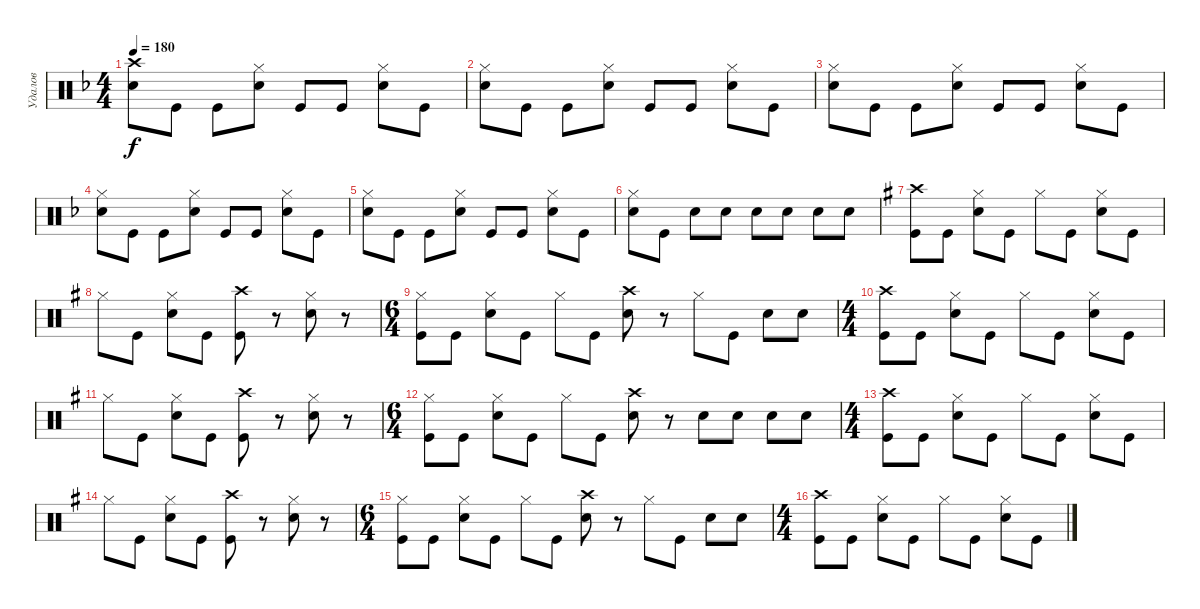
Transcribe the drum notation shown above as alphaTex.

\track ("Удалов" "Удалов") {instrument percussion}
\staff {score}
\articulation defaults
\ts (4 4)
\tempo 180
\clef neutral
\ks f
("Crash high (hit)" "Electric Snare (hit)").8{dy f} "Kick (hit)".8 "Kick (hit)".8 ("Hi-Hat (closed)" "Electric Snare (hit)").8 "Kick (hit)".8 "Kick (hit)".8 ("Hi-Hat (closed)" "Electric Snare (hit)").8 "Kick (hit)".8 |
("Hi-Hat (closed)" "Electric Snare (hit)").8 "Kick (hit)".8 "Kick (hit)".8 ("Hi-Hat (closed)" "Electric Snare (hit)").8 "Kick (hit)".8 "Kick (hit)".8 ("Hi-Hat (closed)" "Electric Snare (hit)").8 "Kick (hit)".8 |
("Hi-Hat (closed)" "Electric Snare (hit)").8 "Kick (hit)".8 "Kick (hit)".8 ("Hi-Hat (closed)" "Electric Snare (hit)").8 "Kick (hit)".8 "Kick (hit)".8 ("Hi-Hat (closed)" "Electric Snare (hit)").8 "Kick (hit)".8 |
("Hi-Hat (closed)" "Electric Snare (hit)").8 "Kick (hit)".8 "Kick (hit)".8 ("Hi-Hat (closed)" "Electric Snare (hit)").8 "Kick (hit)".8 "Kick (hit)".8 ("Hi-Hat (closed)" "Electric Snare (hit)").8 "Kick (hit)".8 |
("Hi-Hat (closed)" "Electric Snare (hit)").8 "Kick (hit)".8 "Kick (hit)".8 ("Hi-Hat (closed)" "Electric Snare (hit)").8 "Kick (hit)".8 "Kick (hit)".8 ("Hi-Hat (closed)" "Electric Snare (hit)").8 "Kick (hit)".8 |
("Hi-Hat (closed)" "Electric Snare (hit)").8 "Kick (hit)".8 "Electric Snare (hit)".8 "Electric Snare (hit)".8 "Electric Snare (hit)".8 "Electric Snare (hit)".8 "Electric Snare (hit)".8 "Electric Snare (hit)".8 |
\ks g
("Crash high (hit)" "Kick (hit)").8 "Kick (hit)".8 ("Hi-Hat (closed)" "Electric Snare (hit)").8 "Kick (hit)".8 "Hi-Hat (closed)".8 "Kick (hit)".8 ("Hi-Hat (closed)" "Electric Snare (hit)").8 "Kick (hit)".8 |
"Hi-Hat (closed)".8 "Kick (hit)".8 ("Hi-Hat (closed)" "Electric Snare (hit)").8 "Kick (hit)".8 ("Crash high (hit)" "Kick (hit)").8 r.8 ("Hi-Hat (closed)" "Electric Snare (hit)").8 r.8 |
\ts (6 4)
("Hi-Hat (closed)" "Kick (hit)").8 "Kick (hit)".8 ("Hi-Hat (closed)" "Electric Snare (hit)").8 "Kick (hit)".8 "Hi-Hat (closed)".8 "Kick (hit)".8 ("Crash high (hit)" "Electric Snare (hit)").8 r.8 "Hi-Hat (closed)".8 "Kick (hit)".8 "Electric Snare (hit)".8 "Electric Snare (hit)".8 |
\ts (4 4)
("Crash high (hit)" "Kick (hit)").8 "Kick (hit)".8 ("Hi-Hat (closed)" "Electric Snare (hit)").8 "Kick (hit)".8 "Hi-Hat (closed)".8 "Kick (hit)".8 ("Hi-Hat (closed)" "Electric Snare (hit)").8 "Kick (hit)".8 |
"Hi-Hat (closed)".8 "Kick (hit)".8 ("Hi-Hat (closed)" "Electric Snare (hit)").8 "Kick (hit)".8 ("Crash high (hit)" "Kick (hit)").8 r.8 ("Hi-Hat (closed)" "Electric Snare (hit)").8 r.8 |
\ts (6 4)
("Hi-Hat (closed)" "Kick (hit)").8 "Kick (hit)".8 ("Hi-Hat (closed)" "Electric Snare (hit)").8 "Kick (hit)".8 "Hi-Hat (closed)".8 "Kick (hit)".8 ("Crash high (hit)" "Electric Snare (hit)").8 r.8 "Electric Snare (hit)".8 "Electric Snare (hit)".8 "Electric Snare (hit)".8 "Electric Snare (hit)".8 |
\ts (4 4)
("Crash high (hit)" "Kick (hit)").8 "Kick (hit)".8 ("Hi-Hat (closed)" "Electric Snare (hit)").8 "Kick (hit)".8 "Hi-Hat (closed)".8 "Kick (hit)".8 ("Hi-Hat (closed)" "Electric Snare (hit)").8 "Kick (hit)".8 |
"Hi-Hat (closed)".8 "Kick (hit)".8 ("Hi-Hat (closed)" "Electric Snare (hit)").8 "Kick (hit)".8 ("Crash high (hit)" "Kick (hit)").8 r.8 ("Hi-Hat (closed)" "Electric Snare (hit)").8 r.8 |
\ts (6 4)
("Hi-Hat (closed)" "Kick (hit)").8 "Kick (hit)".8 ("Hi-Hat (closed)" "Electric Snare (hit)").8 "Kick (hit)".8 "Hi-Hat (closed)".8 "Kick (hit)".8 ("Crash high (hit)" "Electric Snare (hit)").8 r.8 "Hi-Hat (closed)".8 "Kick (hit)".8 "Electric Snare (hit)".8 "Electric Snare (hit)".8 |
\ts (4 4)
("Crash high (hit)" "Kick (hit)").8 "Kick (hit)".8 ("Hi-Hat (closed)" "Electric Snare (hit)").8 "Kick (hit)".8 "Hi-Hat (closed)".8 "Kick (hit)".8 ("Hi-Hat (closed)" "Electric Snare (hit)").8 "Kick (hit)".8
